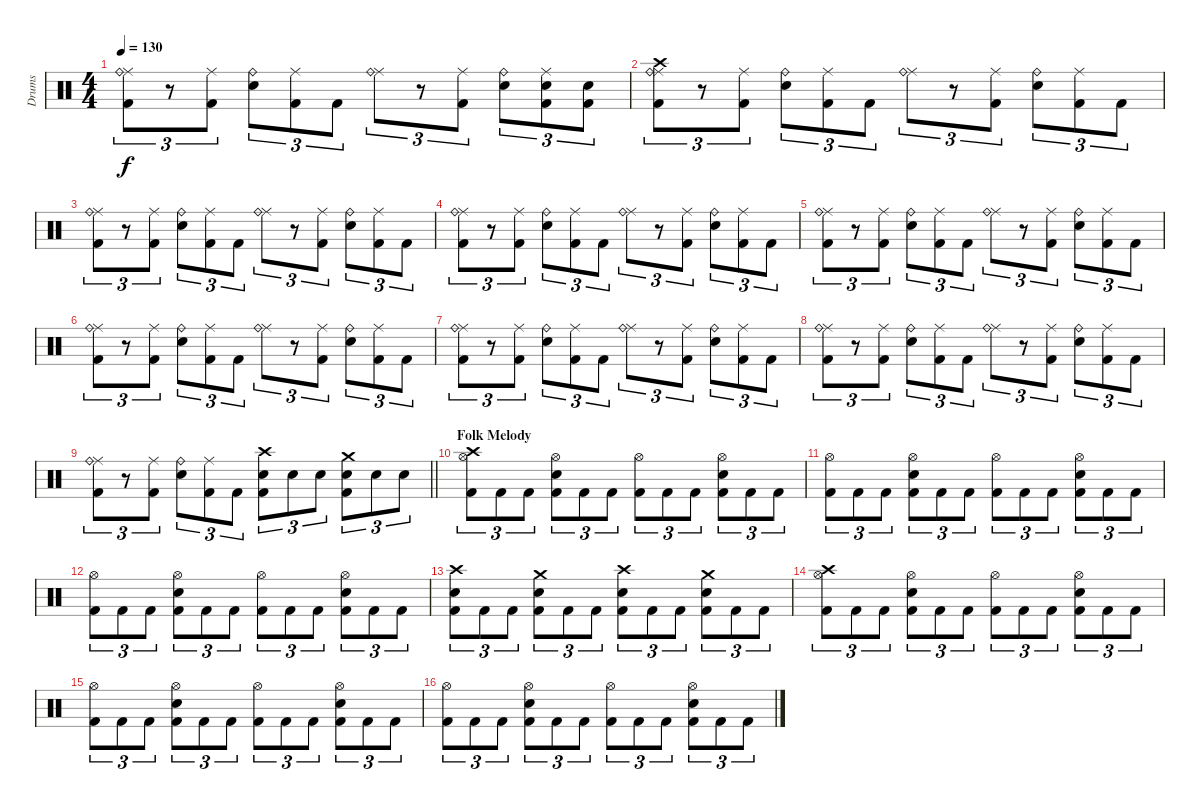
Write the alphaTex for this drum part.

\track ("Drums" "Drums") {instrument percussion}
\staff {score}
\articulation defaults
\ts (4 4)
\tempo 130
\clef neutral
\ks c
("Ride (middle)" "Ride (bell)" "Kick (hit) 2").8{tu (3 2) dy f} r.8{tu (3 2)} ("Ride (middle)" "Kick (hit) 2").8{tu (3 2)} ("Ride (bell)" "Snare (hit) 2").8{tu (3 2)} ("Ride (middle)" "Kick (hit) 2").8{tu (3 2)} "Kick (hit) 2".8{tu (3 2)} ("Ride (middle)" "Ride (bell)").8{tu (3 2)} r.8{tu (3 2)} ("Ride (middle)" "Kick (hit) 2").8{tu (3 2)} ("Ride (bell)" "Snare (hit) 2").8{tu (3 2)} ("Ride (middle)" "Snare (hit) 2" "Kick (hit) 2").8{tu (3 2)} ("Snare (hit) 2" "Kick (hit) 2").8{tu (3 2)} |
("Crash high (hit)" "Ride (middle)" "Ride (bell)" "Kick (hit) 2").8{tu (3 2)} r.8{tu (3 2)} ("Ride (middle)" "Kick (hit) 2").8{tu (3 2)} ("Ride (bell)" "Snare (hit) 2").8{tu (3 2)} ("Ride (middle)" "Kick (hit) 2").8{tu (3 2)} "Kick (hit) 2".8{tu (3 2)} ("Ride (middle)" "Ride (bell)").8{tu (3 2)} r.8{tu (3 2)} ("Ride (middle)" "Kick (hit) 2").8{tu (3 2)} ("Ride (bell)" "Snare (hit) 2").8{tu (3 2)} ("Ride (middle)" "Kick (hit) 2").8{tu (3 2)} "Kick (hit) 2".8{tu (3 2)} |
("Ride (middle)" "Ride (bell)" "Kick (hit) 2").8{tu (3 2)} r.8{tu (3 2)} ("Ride (middle)" "Kick (hit) 2").8{tu (3 2)} ("Ride (bell)" "Snare (hit) 2").8{tu (3 2)} ("Ride (middle)" "Kick (hit) 2").8{tu (3 2)} "Kick (hit) 2".8{tu (3 2)} ("Ride (middle)" "Ride (bell)").8{tu (3 2)} r.8{tu (3 2)} ("Ride (middle)" "Kick (hit) 2").8{tu (3 2)} ("Ride (bell)" "Snare (hit) 2").8{tu (3 2)} ("Ride (middle)" "Kick (hit) 2").8{tu (3 2)} "Kick (hit) 2".8{tu (3 2)} |
("Ride (middle)" "Ride (bell)" "Kick (hit) 2").8{tu (3 2)} r.8{tu (3 2)} ("Ride (middle)" "Kick (hit) 2").8{tu (3 2)} ("Ride (bell)" "Snare (hit) 2").8{tu (3 2)} ("Ride (middle)" "Kick (hit) 2").8{tu (3 2)} "Kick (hit) 2".8{tu (3 2)} ("Ride (middle)" "Ride (bell)").8{tu (3 2)} r.8{tu (3 2)} ("Ride (middle)" "Kick (hit) 2").8{tu (3 2)} ("Ride (bell)" "Snare (hit) 2").8{tu (3 2)} ("Ride (middle)" "Kick (hit) 2").8{tu (3 2)} "Kick (hit) 2".8{tu (3 2)} |
("Ride (middle)" "Ride (bell)" "Kick (hit) 2").8{tu (3 2)} r.8{tu (3 2)} ("Ride (middle)" "Kick (hit) 2").8{tu (3 2)} ("Ride (bell)" "Snare (hit) 2").8{tu (3 2)} ("Ride (middle)" "Kick (hit) 2").8{tu (3 2)} "Kick (hit) 2".8{tu (3 2)} ("Ride (middle)" "Ride (bell)").8{tu (3 2)} r.8{tu (3 2)} ("Ride (middle)" "Kick (hit) 2").8{tu (3 2)} ("Ride (bell)" "Snare (hit) 2").8{tu (3 2)} ("Ride (middle)" "Kick (hit) 2").8{tu (3 2)} "Kick (hit) 2".8{tu (3 2)} |
("Ride (middle)" "Ride (bell)" "Kick (hit) 2").8{tu (3 2)} r.8{tu (3 2)} ("Ride (middle)" "Kick (hit) 2").8{tu (3 2)} ("Ride (bell)" "Snare (hit) 2").8{tu (3 2)} ("Ride (middle)" "Kick (hit) 2").8{tu (3 2)} "Kick (hit) 2".8{tu (3 2)} ("Ride (middle)" "Ride (bell)").8{tu (3 2)} r.8{tu (3 2)} ("Ride (middle)" "Kick (hit) 2").8{tu (3 2)} ("Ride (bell)" "Snare (hit) 2").8{tu (3 2)} ("Ride (middle)" "Kick (hit) 2").8{tu (3 2)} "Kick (hit) 2".8{tu (3 2)} |
("Ride (middle)" "Ride (bell)" "Kick (hit) 2").8{tu (3 2)} r.8{tu (3 2)} ("Ride (middle)" "Kick (hit) 2").8{tu (3 2)} ("Ride (bell)" "Snare (hit) 2").8{tu (3 2)} ("Ride (middle)" "Kick (hit) 2").8{tu (3 2)} "Kick (hit) 2".8{tu (3 2)} ("Ride (middle)" "Ride (bell)").8{tu (3 2)} r.8{tu (3 2)} ("Ride (middle)" "Kick (hit) 2").8{tu (3 2)} ("Ride (bell)" "Snare (hit) 2").8{tu (3 2)} ("Ride (middle)" "Kick (hit) 2").8{tu (3 2)} "Kick (hit) 2".8{tu (3 2)} |
("Ride (middle)" "Ride (bell)" "Kick (hit) 2").8{tu (3 2)} r.8{tu (3 2)} ("Ride (middle)" "Kick (hit) 2").8{tu (3 2)} ("Ride (bell)" "Snare (hit) 2").8{tu (3 2)} ("Ride (middle)" "Kick (hit) 2").8{tu (3 2)} "Kick (hit) 2".8{tu (3 2)} ("Ride (middle)" "Ride (bell)").8{tu (3 2)} r.8{tu (3 2)} ("Ride (middle)" "Kick (hit) 2").8{tu (3 2)} ("Ride (bell)" "Snare (hit) 2").8{tu (3 2)} ("Ride (middle)" "Kick (hit) 2").8{tu (3 2)} "Kick (hit) 2".8{tu (3 2)} |
\barLineRight lightlight
("Ride (middle)" "Ride (bell)" "Kick (hit) 2").8{tu (3 2)} r.8{tu (3 2)} ("Ride (middle)" "Kick (hit) 2").8{tu (3 2)} ("Ride (bell)" "Snare (hit) 2").8{tu (3 2)} ("Ride (middle)" "Kick (hit) 2").8{tu (3 2)} "Kick (hit) 2".8{tu (3 2)} ("Crash high (hit)" "Snare (hit) 2" "Kick (hit) 2").8{tu (3 2)} "Snare (hit) 2".8{tu (3 2)} "Snare (hit) 2".8{tu (3 2)} ("Crash medium (hit)" "Snare (hit) 2" "Kick (hit) 2").8{tu (3 2)} "Snare (hit) 2".8{tu (3 2)} "Snare (hit) 2".8{tu (3 2)} |
\section ("" "Folk Melody")
("Crash high (hit)" "Hi-Hat (open)" "Kick (hit) 2").8{tu (3 2)} "Kick (hit) 2".8{tu (3 2)} "Kick (hit) 2".8{tu (3 2)} ("Hi-Hat (open)" "Snare (hit) 2" "Kick (hit) 2").8{tu (3 2)} "Kick (hit) 2".8{tu (3 2)} "Kick (hit) 2".8{tu (3 2)} ("Hi-Hat (open)" "Kick (hit) 2").8{tu (3 2)} "Kick (hit) 2".8{tu (3 2)} "Kick (hit) 2".8{tu (3 2)} ("Hi-Hat (open)" "Snare (hit) 2" "Kick (hit) 2").8{tu (3 2)} "Kick (hit) 2".8{tu (3 2)} "Kick (hit) 2".8{tu (3 2)} |
("Hi-Hat (open)" "Kick (hit) 2").8{tu (3 2)} "Kick (hit) 2".8{tu (3 2)} "Kick (hit) 2".8{tu (3 2)} ("Hi-Hat (open)" "Snare (hit) 2" "Kick (hit) 2").8{tu (3 2)} "Kick (hit) 2".8{tu (3 2)} "Kick (hit) 2".8{tu (3 2)} ("Hi-Hat (open)" "Kick (hit) 2").8{tu (3 2)} "Kick (hit) 2".8{tu (3 2)} "Kick (hit) 2".8{tu (3 2)} ("Hi-Hat (open)" "Snare (hit) 2" "Kick (hit) 2").8{tu (3 2)} "Kick (hit) 2".8{tu (3 2)} "Kick (hit) 2".8{tu (3 2)} |
("Hi-Hat (open)" "Kick (hit) 2").8{tu (3 2)} "Kick (hit) 2".8{tu (3 2)} "Kick (hit) 2".8{tu (3 2)} ("Hi-Hat (open)" "Snare (hit) 2" "Kick (hit) 2").8{tu (3 2)} "Kick (hit) 2".8{tu (3 2)} "Kick (hit) 2".8{tu (3 2)} ("Hi-Hat (open)" "Kick (hit) 2").8{tu (3 2)} "Kick (hit) 2".8{tu (3 2)} "Kick (hit) 2".8{tu (3 2)} ("Hi-Hat (open)" "Snare (hit) 2" "Kick (hit) 2").8{tu (3 2)} "Kick (hit) 2".8{tu (3 2)} "Kick (hit) 2".8{tu (3 2)} |
("Crash high (hit)" "Snare (hit) 2" "Kick (hit) 2").8{tu (3 2)} "Kick (hit) 2".8{tu (3 2)} "Kick (hit) 2".8{tu (3 2)} ("Crash medium (hit)" "Snare (hit) 2" "Kick (hit) 2").8{tu (3 2)} "Kick (hit) 2".8{tu (3 2)} "Kick (hit) 2".8{tu (3 2)} ("Crash high (hit)" "Snare (hit) 2" "Kick (hit) 2").8{tu (3 2)} "Kick (hit) 2".8{tu (3 2)} "Kick (hit) 2".8{tu (3 2)} ("Crash medium (hit)" "Snare (hit) 2" "Kick (hit) 2").8{tu (3 2)} "Kick (hit) 2".8{tu (3 2)} "Kick (hit) 2".8{tu (3 2)} |
("Crash high (hit)" "Hi-Hat (open)" "Kick (hit) 2").8{tu (3 2)} "Kick (hit) 2".8{tu (3 2)} "Kick (hit) 2".8{tu (3 2)} ("Hi-Hat (open)" "Snare (hit) 2" "Kick (hit) 2").8{tu (3 2)} "Kick (hit) 2".8{tu (3 2)} "Kick (hit) 2".8{tu (3 2)} ("Hi-Hat (open)" "Kick (hit) 2").8{tu (3 2)} "Kick (hit) 2".8{tu (3 2)} "Kick (hit) 2".8{tu (3 2)} ("Hi-Hat (open)" "Snare (hit) 2" "Kick (hit) 2").8{tu (3 2)} "Kick (hit) 2".8{tu (3 2)} "Kick (hit) 2".8{tu (3 2)} |
("Hi-Hat (open)" "Kick (hit) 2").8{tu (3 2)} "Kick (hit) 2".8{tu (3 2)} "Kick (hit) 2".8{tu (3 2)} ("Hi-Hat (open)" "Snare (hit) 2" "Kick (hit) 2").8{tu (3 2)} "Kick (hit) 2".8{tu (3 2)} "Kick (hit) 2".8{tu (3 2)} ("Hi-Hat (open)" "Kick (hit) 2").8{tu (3 2)} "Kick (hit) 2".8{tu (3 2)} "Kick (hit) 2".8{tu (3 2)} ("Hi-Hat (open)" "Snare (hit) 2" "Kick (hit) 2").8{tu (3 2)} "Kick (hit) 2".8{tu (3 2)} "Kick (hit) 2".8{tu (3 2)} |
("Hi-Hat (open)" "Kick (hit) 2").8{tu (3 2)} "Kick (hit) 2".8{tu (3 2)} "Kick (hit) 2".8{tu (3 2)} ("Hi-Hat (open)" "Snare (hit) 2" "Kick (hit) 2").8{tu (3 2)} "Kick (hit) 2".8{tu (3 2)} "Kick (hit) 2".8{tu (3 2)} ("Hi-Hat (open)" "Kick (hit) 2").8{tu (3 2)} "Kick (hit) 2".8{tu (3 2)} "Kick (hit) 2".8{tu (3 2)} ("Hi-Hat (open)" "Snare (hit) 2" "Kick (hit) 2").8{tu (3 2)} "Kick (hit) 2".8{tu (3 2)} "Kick (hit) 2".8{tu (3 2)}
